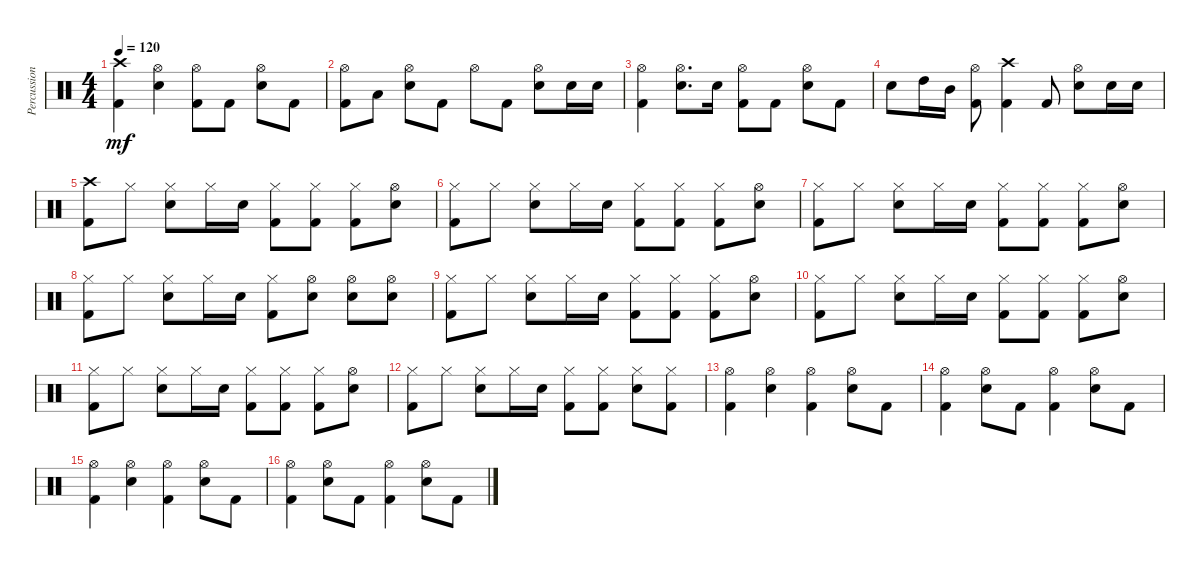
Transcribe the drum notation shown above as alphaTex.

\track ("Percussion" "Percussion") {instrument percussion}
\staff {score}
\articulation defaults
\ts (4 4)
\tempo 120
\clef neutral
\ks c
("Crash high (hit)" "Kick (hit) 2").4{dy mf} ("Hi-Hat (open)" "Snare (hit) 2").4 ("Hi-Hat (open)" "Kick (hit) 2").8 "Kick (hit) 2".8 ("Hi-Hat (open)" "Snare (hit) 2").8 "Kick (hit) 2".8 |
("Hi-Hat (open)" "Kick (hit) 2").8 "Low Tom (hit)".8 ("Hi-Hat (open)" "Snare (hit) 2").8 "Kick (hit) 2".8 "Hi-Hat (open)".8 "Kick (hit) 2".8 ("Hi-Hat (open)" "Snare (hit) 2").8 "Snare (hit) 2".16 "Snare (hit) 2".16 |
("Hi-Hat (open)" "Kick (hit) 2").4 ("Hi-Hat (open)" "Snare (hit) 2").8{d} "Snare (hit) 2".16 ("Hi-Hat (open)" "Kick (hit) 2").8 "Kick (hit) 2".8 ("Hi-Hat (open)" "Snare (hit) 2").8 "Kick (hit) 2".8 |
"Snare (hit) 2".8 "High Tom (hit)".16 "Mid Tom (hit)".16 ("Hi-Hat (open)" "Kick (hit) 2").8 ("Crash high (hit)" "Kick (hit) 2").4 "Kick (hit) 2".8 ("Hi-Hat (open)" "Snare (hit) 2").8 "Snare (hit) 2".16 "Snare (hit) 2".16 |
("Crash high (hit)" "Kick (hit) 2").8 "Hi-Hat (closed)".8 ("Hi-Hat (closed)" "Snare (hit) 2").8 "Hi-Hat (closed)".16 "Snare (hit) 2".16 ("Hi-Hat (closed)" "Kick (hit) 2").8 ("Hi-Hat (closed)" "Kick (hit) 2").8 ("Hi-Hat (closed)" "Kick (hit) 2").8 ("Hi-Hat (open)" "Snare (hit) 2").8 |
("Hi-Hat (closed)" "Kick (hit) 2").8 "Hi-Hat (closed)".8 ("Hi-Hat (closed)" "Snare (hit) 2").8 "Hi-Hat (closed)".16 "Snare (hit) 2".16 ("Hi-Hat (closed)" "Kick (hit) 2").8 ("Hi-Hat (closed)" "Kick (hit) 2").8 ("Hi-Hat (closed)" "Kick (hit) 2").8 ("Hi-Hat (open)" "Snare (hit) 2").8 |
("Hi-Hat (closed)" "Kick (hit) 2").8 "Hi-Hat (closed)".8 ("Hi-Hat (closed)" "Snare (hit) 2").8 "Hi-Hat (closed)".16 "Snare (hit) 2".16 ("Hi-Hat (closed)" "Kick (hit) 2").8 ("Hi-Hat (closed)" "Kick (hit) 2").8 ("Hi-Hat (closed)" "Kick (hit) 2").8 ("Hi-Hat (open)" "Snare (hit) 2").8 |
("Hi-Hat (closed)" "Kick (hit) 2").8 "Hi-Hat (closed)".8 ("Hi-Hat (closed)" "Snare (hit) 2").8 "Hi-Hat (closed)".16 "Snare (hit) 2".16 ("Hi-Hat (closed)" "Kick (hit) 2").8 ("Hi-Hat (open)" "Snare (hit) 2").8 ("Hi-Hat (open)" "Snare (hit) 2").8 ("Hi-Hat (open)" "Snare (hit) 2").8 |
("Hi-Hat (closed)" "Kick (hit) 2").8 "Hi-Hat (closed)".8 ("Hi-Hat (closed)" "Snare (hit) 2").8 "Hi-Hat (closed)".16 "Snare (hit) 2".16 ("Hi-Hat (closed)" "Kick (hit) 2").8 ("Hi-Hat (closed)" "Kick (hit) 2").8 ("Hi-Hat (closed)" "Kick (hit) 2").8 ("Hi-Hat (open)" "Snare (hit) 2").8 |
("Hi-Hat (closed)" "Kick (hit) 2").8 "Hi-Hat (closed)".8 ("Hi-Hat (closed)" "Snare (hit) 2").8 "Hi-Hat (closed)".16 "Snare (hit) 2".16 ("Hi-Hat (closed)" "Kick (hit) 2").8 ("Hi-Hat (closed)" "Kick (hit) 2").8 ("Hi-Hat (closed)" "Kick (hit) 2").8 ("Hi-Hat (open)" "Snare (hit) 2").8 |
("Hi-Hat (closed)" "Kick (hit) 2").8 "Hi-Hat (closed)".8 ("Hi-Hat (closed)" "Snare (hit) 2").8 "Hi-Hat (closed)".16 "Snare (hit) 2".16 ("Hi-Hat (closed)" "Kick (hit) 2").8 ("Hi-Hat (closed)" "Kick (hit) 2").8 ("Hi-Hat (closed)" "Kick (hit) 2").8 ("Hi-Hat (open)" "Snare (hit) 2").8 |
("Hi-Hat (closed)" "Kick (hit) 2").8 "Hi-Hat (closed)".8 ("Hi-Hat (closed)" "Snare (hit) 2").8 "Hi-Hat (closed)".16 "Snare (hit) 2".16 ("Hi-Hat (closed)" "Kick (hit) 2").8 ("Hi-Hat (closed)" "Kick (hit) 2").8 ("Hi-Hat (closed)" "Snare (hit) 2").8 ("Hi-Hat (closed)" "Kick (hit) 2").8 |
("Hi-Hat (open)" "Kick (hit) 2").4 ("Hi-Hat (open)" "Snare (hit) 2").4 ("Hi-Hat (open)" "Kick (hit) 2").4 ("Hi-Hat (open)" "Snare (hit) 2").8 "Kick (hit) 2".8 |
("Hi-Hat (open)" "Kick (hit) 2").4 ("Hi-Hat (open)" "Snare (hit) 2").8 "Kick (hit) 2".8 ("Hi-Hat (open)" "Kick (hit) 2").4 ("Hi-Hat (open)" "Snare (hit) 2").8 "Kick (hit) 2".8 |
("Hi-Hat (open)" "Kick (hit) 2").4 ("Hi-Hat (open)" "Snare (hit) 2").4 ("Hi-Hat (open)" "Kick (hit) 2").4 ("Hi-Hat (open)" "Snare (hit) 2").8 "Kick (hit) 2".8 |
("Hi-Hat (open)" "Kick (hit) 2").4 ("Hi-Hat (open)" "Snare (hit) 2").8 "Kick (hit) 2".8 ("Hi-Hat (open)" "Kick (hit) 2").4 ("Hi-Hat (open)" "Snare (hit) 2").8 "Kick (hit) 2".8
